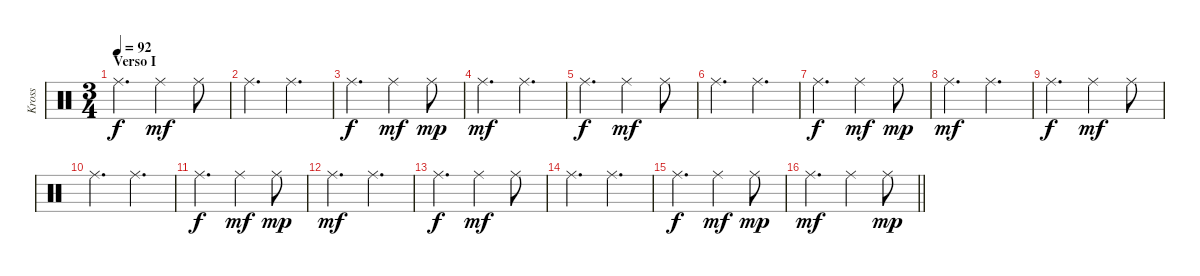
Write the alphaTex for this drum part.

\track ("Kross" "Kross") {instrument percussion}
\staff {score}
\articulation defaults
\ts (3 4)
\section ("" "Verso I")
\tempo 92
\clef neutral
\ks c "Ride (middle)".4{d dy f} "Ride (middle)".4{dy mf} "Ride (middle)".8
|
"Ride (middle)".4{d} "Ride (middle)".4{d} |
"Ride (middle)".4{d dy f} "Ride (middle)".4{dy mf} "Ride (middle)".8{dy mp} |
"Ride (middle)".4{d dy mf} "Ride (middle)".4{d} |
"Ride (middle)".4{d dy f} "Ride (middle)".4{dy mf} "Ride (middle)".8 |
"Ride (middle)".4{d} "Ride (middle)".4{d} |
"Ride (middle)".4{d dy f} "Ride (middle)".4{dy mf} "Ride (middle)".8{dy mp} |
"Ride (middle)".4{d dy mf} "Ride (middle)".4{d} |
"Ride (middle)".4{d dy f} "Ride (middle)".4{dy mf} "Ride (middle)".8 |
"Ride (middle)".4{d} "Ride (middle)".4{d} |
"Ride (middle)".4{d dy f} "Ride (middle)".4{dy mf} "Ride (middle)".8{dy mp} |
"Ride (middle)".4{d dy mf} "Ride (middle)".4{d} |
"Ride (middle)".4{d dy f} "Ride (middle)".4{dy mf} "Ride (middle)".8 |
"Ride (middle)".4{d} "Ride (middle)".4{d} |
"Ride (middle)".4{d dy f} "Ride (middle)".4{dy mf} "Ride (middle)".8{dy mp} |
\barLineRight lightlight "Ride (middle)".4{d dy mf} "Ride (middle)".4 "Ride (middle)".8{dy mp}
